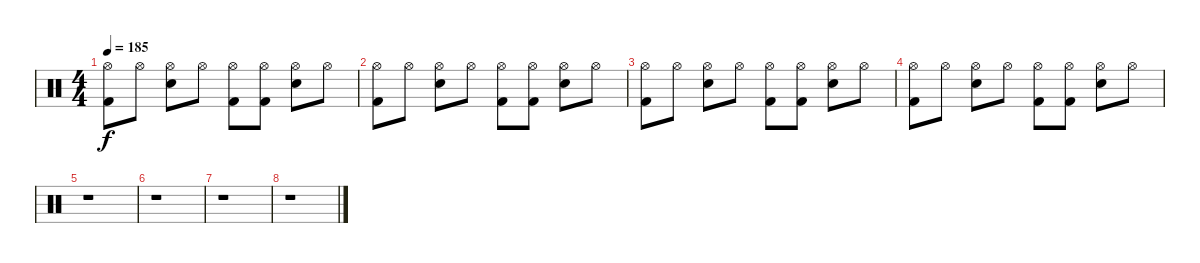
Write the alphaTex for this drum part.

\track "" {instrument percussion}
\staff {score}
\articulation defaults
\ts (4 4)
\tempo 185
\clef neutral
\ks c
("Kick (hit) 2" "Hi-Hat (open)").8{dy f} "Hi-Hat (open)".8 ("Snare (hit) 2" "Hi-Hat (open)").8 "Hi-Hat (open)".8 ("Kick (hit) 2" "Hi-Hat (open)").8 ("Kick (hit) 2" "Hi-Hat (open)").8 ("Snare (hit) 2" "Hi-Hat (open)").8 "Hi-Hat (open)".8 |
("Kick (hit) 2" "Hi-Hat (open)").8 "Hi-Hat (open)".8 ("Snare (hit) 2" "Hi-Hat (open)").8 "Hi-Hat (open)".8 ("Kick (hit) 2" "Hi-Hat (open)").8 ("Kick (hit) 2" "Hi-Hat (open)").8 ("Snare (hit) 2" "Hi-Hat (open)").8 "Hi-Hat (open)".8 |
("Kick (hit) 2" "Hi-Hat (open)").8 "Hi-Hat (open)".8 ("Snare (hit) 2" "Hi-Hat (open)").8 "Hi-Hat (open)".8 ("Kick (hit) 2" "Hi-Hat (open)").8 ("Kick (hit) 2" "Hi-Hat (open)").8 ("Snare (hit) 2" "Hi-Hat (open)").8 "Hi-Hat (open)".8 |
("Kick (hit) 2" "Hi-Hat (open)").8 "Hi-Hat (open)".8 ("Snare (hit) 2" "Hi-Hat (open)").8 "Hi-Hat (open)".8 ("Kick (hit) 2" "Hi-Hat (open)").8 ("Kick (hit) 2" "Hi-Hat (open)").8 ("Snare (hit) 2" "Hi-Hat (open)").8 "Hi-Hat (open)".8 |
r.1 |
r.1 |
r.1 |
r.1
